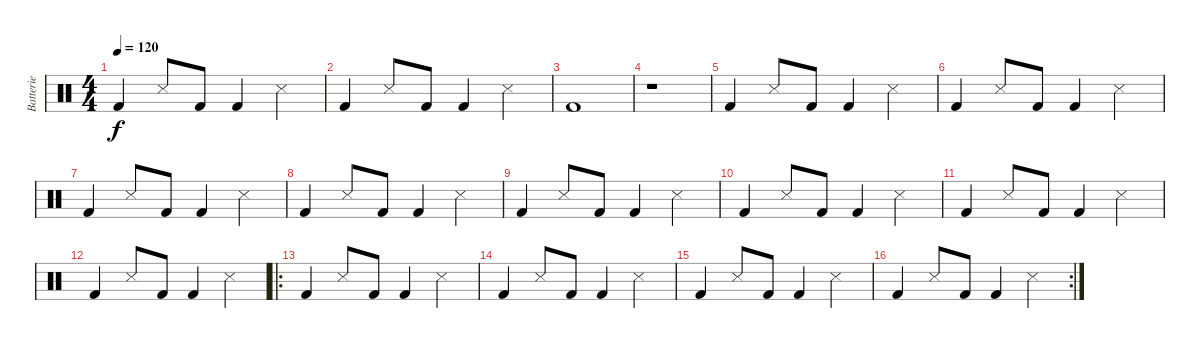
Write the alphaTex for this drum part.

\track ("Batterie" "Batterie") {instrument percussion}
\staff {score}
\articulation defaults
\ts (4 4)
\tempo 120
\clef neutral
\ks c "Kick (hit) 2".4{dy f} "Snare (side stick) 3".8 "Kick (hit) 2".8 "Kick (hit) 2".4 "Snare (side stick) 3".4
|
"Kick (hit) 2".4 "Snare (side stick) 3".8 "Kick (hit) 2".8 "Kick (hit) 2".4 "Snare (side stick) 3".4 |
"Kick (hit) 2".1 |
r.1 |
"Kick (hit) 2".4 "Snare (side stick) 3".8 "Kick (hit) 2".8 "Kick (hit) 2".4 "Snare (side stick) 3".4 |
"Kick (hit) 2".4 "Snare (side stick) 3".8 "Kick (hit) 2".8 "Kick (hit) 2".4 "Snare (side stick) 3".4 |
"Kick (hit) 2".4 "Snare (side stick) 3".8 "Kick (hit) 2".8 "Kick (hit) 2".4 "Snare (side stick) 3".4 |
"Kick (hit) 2".4 "Snare (side stick) 3".8 "Kick (hit) 2".8 "Kick (hit) 2".4 "Snare (side stick) 3".4 |
"Kick (hit) 2".4 "Snare (side stick) 3".8 "Kick (hit) 2".8 "Kick (hit) 2".4 "Snare (side stick) 3".4 |
"Kick (hit) 2".4 "Snare (side stick) 3".8 "Kick (hit) 2".8 "Kick (hit) 2".4 "Snare (side stick) 3".4 |
"Kick (hit) 2".4 "Snare (side stick) 3".8 "Kick (hit) 2".8 "Kick (hit) 2".4 "Snare (side stick) 3".4 |
"Kick (hit) 2".4 "Snare (side stick) 3".8 "Kick (hit) 2".8 "Kick (hit) 2".4 "Snare (side stick) 3".4 |
\ro "Kick (hit) 2".4 "Snare (side stick) 3".8 "Kick (hit) 2".8 "Kick (hit) 2".4 "Snare (side stick) 3".4
|
"Kick (hit) 2".4 "Snare (side stick) 3".8 "Kick (hit) 2".8 "Kick (hit) 2".4 "Snare (side stick) 3".4 |
"Kick (hit) 2".4 "Snare (side stick) 3".8 "Kick (hit) 2".8 "Kick (hit) 2".4 "Snare (side stick) 3".4 |
\rc 2 "Kick (hit) 2".4 "Snare (side stick) 3".8 "Kick (hit) 2".8 "Kick (hit) 2".4 "Snare (side stick) 3".4
